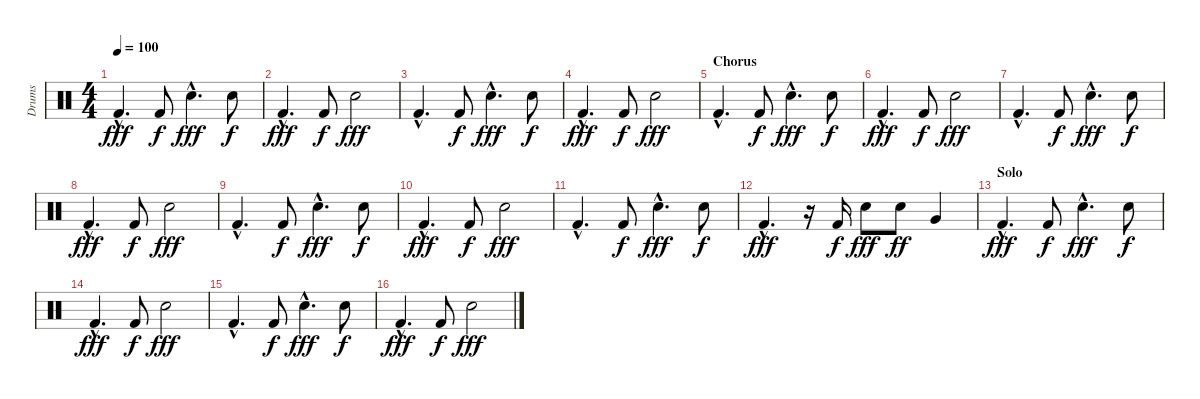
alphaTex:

\track ("Drums" "Drums") {instrument percussion}
\staff {score}
\articulation defaults
\ts (4 4)
\tempo 100
\clef neutral
\ks c "Kick (hit) 2"{hac}.4{d dy fff} "Kick (hit) 2".8{dy f} "Electric Snare (hit)"{hac}.4{d dy fff} "Electric Snare (hit)".8{dy f}
|
"Kick (hit) 2"{hac}.4{d dy fff} "Kick (hit) 2".8{dy f} "Electric Snare (hit)".2{dy fff} |
"Kick (hit) 2"{hac}.4{d} "Kick (hit) 2".8{dy f} "Electric Snare (hit)"{hac}.4{d dy fff} "Electric Snare (hit)".8{dy f} |
"Kick (hit) 2"{hac}.4{d dy fff} "Kick (hit) 2".8{dy f} "Electric Snare (hit)".2{dy fff} |
\section ("" "Chorus")
"Kick (hit) 2"{hac}.4{d} "Kick (hit) 2".8{dy f} "Electric Snare (hit)"{hac}.4{d dy fff} "Electric Snare (hit)".8{dy f} |
"Kick (hit) 2"{hac}.4{d dy fff} "Kick (hit) 2".8{dy f} "Electric Snare (hit)".2{dy fff} |
"Kick (hit) 2"{hac}.4{d} "Kick (hit) 2".8{dy f} "Electric Snare (hit)"{hac}.4{d dy fff} "Electric Snare (hit)".8{dy f} |
"Kick (hit) 2"{hac}.4{d dy fff} "Kick (hit) 2".8{dy f} "Electric Snare (hit)".2{dy fff} |
"Kick (hit) 2"{hac}.4{d} "Kick (hit) 2".8{dy f} "Electric Snare (hit)"{hac}.4{d dy fff} "Electric Snare (hit)".8{dy f} |
"Kick (hit) 2"{hac}.4{d dy fff} "Kick (hit) 2".8{dy f} "Electric Snare (hit)".2{dy fff} |
"Kick (hit) 2"{hac}.4{d} "Kick (hit) 2".8{dy f} "Electric Snare (hit)"{hac}.4{d dy fff} "Electric Snare (hit)".8{dy f} |
"Kick (hit) 2"{hac}.4{d dy fff} r.16 "Kick (hit) 2".16{dy f volume 10} "Electric Snare (hit)".8{dy fff} "Electric Snare (hit)".8{dy ff} "Very Low Tom (hit)".4 |
\section ("" "Solo")
"Kick (hit) 2"{hac}.4{d dy fff volume 8} "Kick (hit) 2".8{dy f} "Electric Snare (hit)"{hac}.4{d dy fff} "Electric Snare (hit)".8{dy f} |
"Kick (hit) 2"{hac}.4{d dy fff} "Kick (hit) 2".8{dy f} "Electric Snare (hit)".2{dy fff} |
"Kick (hit) 2"{hac}.4{d} "Kick (hit) 2".8{dy f} "Electric Snare (hit)"{hac}.4{d dy fff} "Electric Snare (hit)".8{dy f} |
"Kick (hit) 2"{hac}.4{d dy fff} "Kick (hit) 2".8{dy f} "Electric Snare (hit)".2{dy fff}
